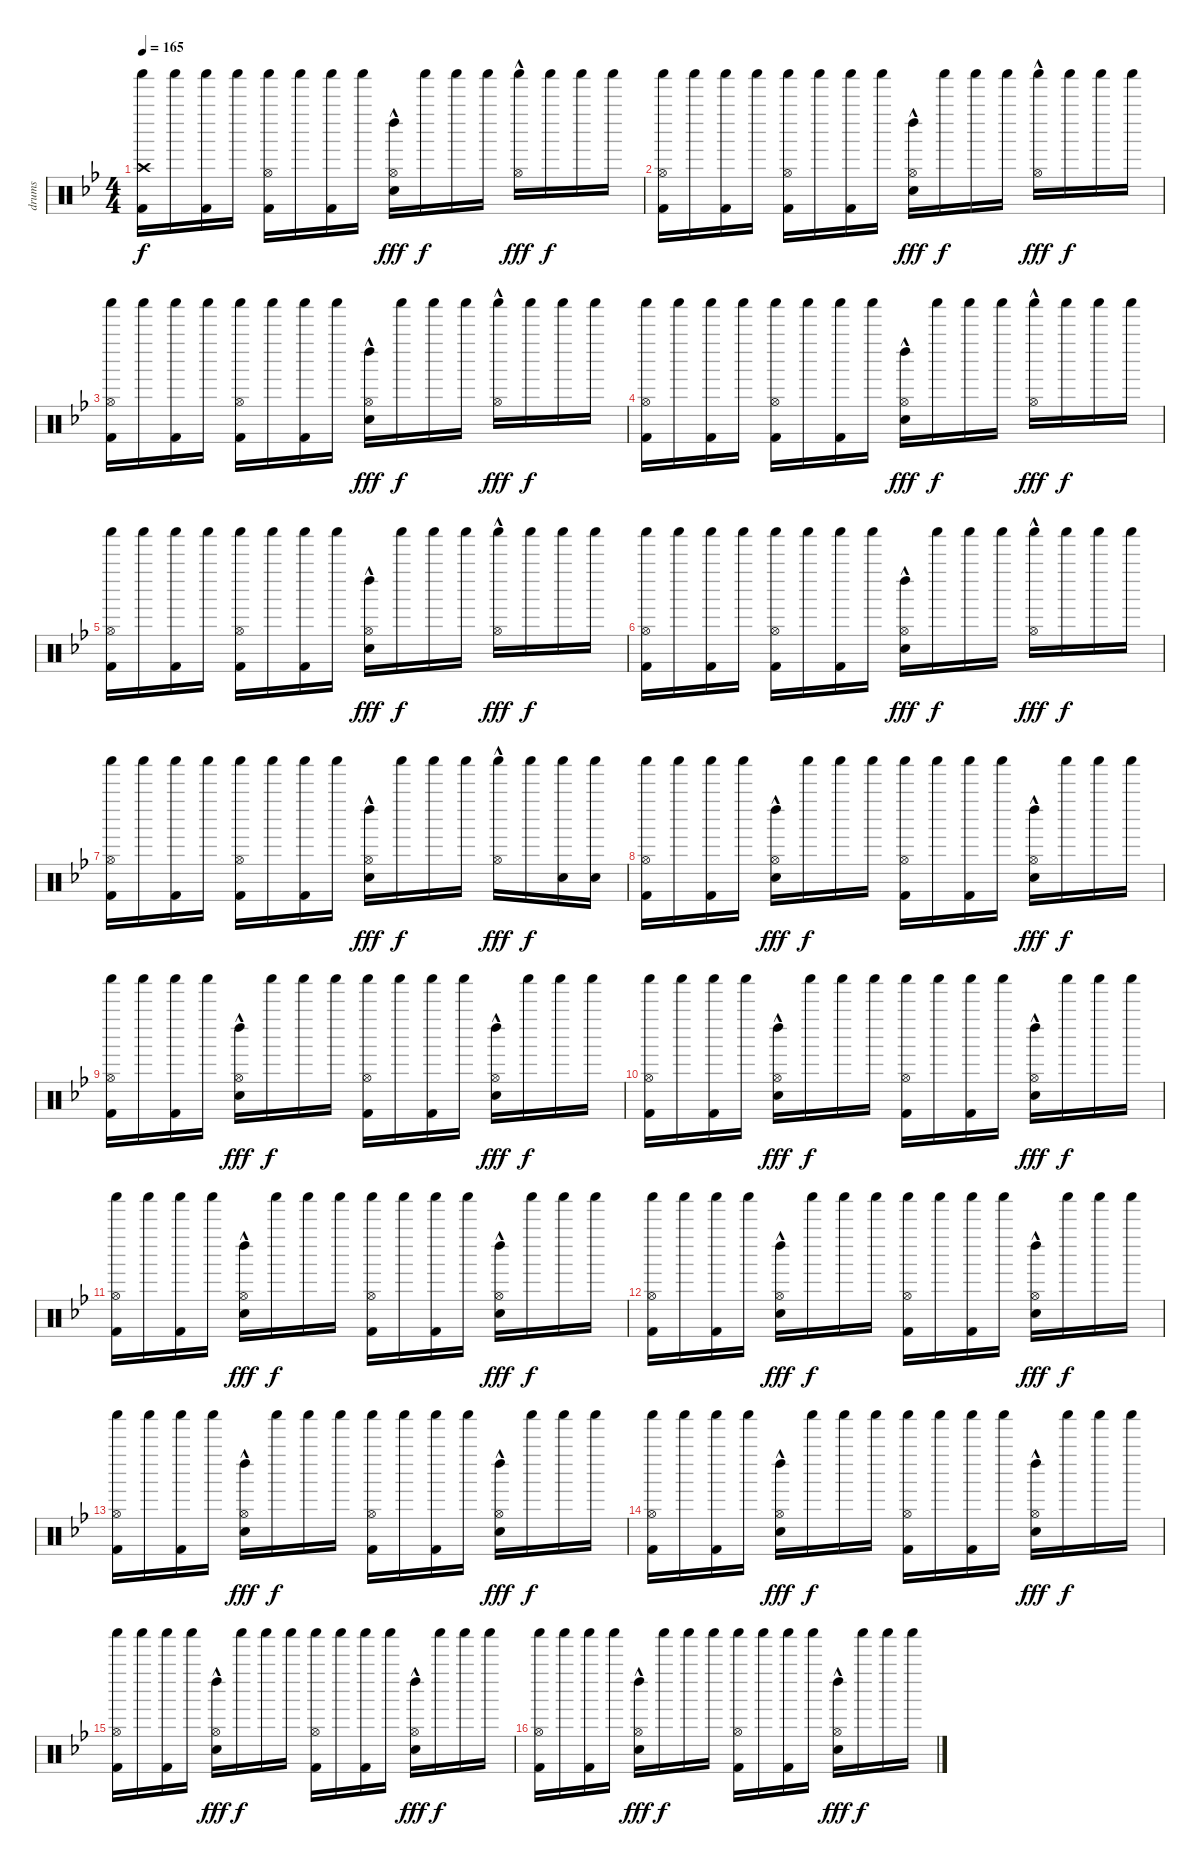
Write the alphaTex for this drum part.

\track ("drums" "drums") {instrument percussion}
\staff {score}
\articulation defaults
\ts (4 4)
\tempo 165
\clef neutral
\ks bb
("Shaker (hit)" "Crash high (hit)" "Kick (hit) 2").16{dy f} "Shaker (hit)".16 ("Shaker (hit)" "Kick (hit) 2").16 "Shaker (hit)".16 ("Shaker (hit)" "Hi-Hat (open)" "Kick (hit) 2").16 "Shaker (hit)".16 ("Shaker (hit)" "Kick (hit) 2").16 "Shaker (hit)".16 ("Left Maraca (hit)"{hac} "Hi-Hat (open)" "Snare (hit) 2").16{dy fff} "Shaker (hit)".16{dy f} "Shaker (hit)".16 "Shaker (hit)".16 ("Shaker (hit)" "Hi-Hat (open)"{hac}).16{dy fff} "Shaker (hit)".16{dy f} "Shaker (hit)".16 "Shaker (hit)".16 |
("Shaker (hit)" "Hi-Hat (open)" "Kick (hit) 2").16 "Shaker (hit)".16 ("Shaker (hit)" "Kick (hit) 2").16 "Shaker (hit)".16 ("Shaker (hit)" "Hi-Hat (open)" "Kick (hit) 2").16 "Shaker (hit)".16 ("Shaker (hit)" "Kick (hit) 2").16 "Shaker (hit)".16 ("Left Maraca (hit)"{hac} "Hi-Hat (open)" "Snare (hit) 2").16{dy fff} "Shaker (hit)".16{dy f} "Shaker (hit)".16 "Shaker (hit)".16 ("Shaker (hit)" "Hi-Hat (open)"{hac}).16{dy fff} "Shaker (hit)".16{dy f} "Shaker (hit)".16 "Shaker (hit)".16 |
("Shaker (hit)" "Hi-Hat (open)" "Kick (hit) 2").16 "Shaker (hit)".16 ("Shaker (hit)" "Kick (hit) 2").16 "Shaker (hit)".16 ("Shaker (hit)" "Hi-Hat (open)" "Kick (hit) 2").16 "Shaker (hit)".16 ("Shaker (hit)" "Kick (hit) 2").16 "Shaker (hit)".16 ("Left Maraca (hit)"{hac} "Hi-Hat (open)" "Snare (hit) 2").16{dy fff} "Shaker (hit)".16{dy f} "Shaker (hit)".16 "Shaker (hit)".16 ("Shaker (hit)" "Hi-Hat (open)"{hac}).16{dy fff} "Shaker (hit)".16{dy f} "Shaker (hit)".16 "Shaker (hit)".16 |
("Shaker (hit)" "Hi-Hat (open)" "Kick (hit) 2").16 "Shaker (hit)".16 ("Shaker (hit)" "Kick (hit) 2").16 "Shaker (hit)".16 ("Shaker (hit)" "Hi-Hat (open)" "Kick (hit) 2").16 "Shaker (hit)".16 ("Shaker (hit)" "Kick (hit) 2").16 "Shaker (hit)".16 ("Left Maraca (hit)"{hac} "Hi-Hat (open)" "Snare (hit) 2").16{dy fff} "Shaker (hit)".16{dy f} "Shaker (hit)".16 "Shaker (hit)".16 ("Shaker (hit)" "Hi-Hat (open)"{hac}).16{dy fff} "Shaker (hit)".16{dy f} "Shaker (hit)".16 "Shaker (hit)".16 |
("Shaker (hit)" "Hi-Hat (open)" "Kick (hit) 2").16 "Shaker (hit)".16 ("Shaker (hit)" "Kick (hit) 2").16 "Shaker (hit)".16 ("Shaker (hit)" "Hi-Hat (open)" "Kick (hit) 2").16 "Shaker (hit)".16 ("Shaker (hit)" "Kick (hit) 2").16 "Shaker (hit)".16 ("Left Maraca (hit)"{hac} "Hi-Hat (open)" "Snare (hit) 2").16{dy fff} "Shaker (hit)".16{dy f} "Shaker (hit)".16 "Shaker (hit)".16 ("Shaker (hit)" "Hi-Hat (open)"{hac}).16{dy fff} "Shaker (hit)".16{dy f} "Shaker (hit)".16 "Shaker (hit)".16 |
("Shaker (hit)" "Hi-Hat (open)" "Kick (hit) 2").16 "Shaker (hit)".16 ("Shaker (hit)" "Kick (hit) 2").16 "Shaker (hit)".16 ("Shaker (hit)" "Hi-Hat (open)" "Kick (hit) 2").16 "Shaker (hit)".16 ("Shaker (hit)" "Kick (hit) 2").16 "Shaker (hit)".16 ("Left Maraca (hit)"{hac} "Hi-Hat (open)" "Snare (hit) 2").16{dy fff} "Shaker (hit)".16{dy f} "Shaker (hit)".16 "Shaker (hit)".16 ("Shaker (hit)" "Hi-Hat (open)"{hac}).16{dy fff} "Shaker (hit)".16{dy f} "Shaker (hit)".16 "Shaker (hit)".16 |
("Shaker (hit)" "Hi-Hat (open)" "Kick (hit) 2").16 "Shaker (hit)".16 ("Shaker (hit)" "Kick (hit) 2").16 "Shaker (hit)".16 ("Shaker (hit)" "Hi-Hat (open)" "Kick (hit) 2").16 "Shaker (hit)".16 ("Shaker (hit)" "Kick (hit) 2").16 "Shaker (hit)".16 ("Left Maraca (hit)"{hac} "Hi-Hat (open)" "Snare (hit) 2").16{dy fff} "Shaker (hit)".16{dy f} "Shaker (hit)".16 "Shaker (hit)".16 ("Shaker (hit)" "Hi-Hat (open)"{hac}).16{dy fff} "Shaker (hit)".16{dy f} ("Shaker (hit)" "Snare (hit) 2").16 ("Shaker (hit)" "Snare (hit) 2").16 |
("Shaker (hit)" "Hi-Hat (open)" "Kick (hit) 2").16 "Shaker (hit)".16 ("Shaker (hit)" "Kick (hit) 2").16 "Shaker (hit)".16 ("Left Maraca (hit)"{hac} "Hi-Hat (open)" "Snare (hit) 2").16{dy fff} "Shaker (hit)".16{dy f} "Shaker (hit)".16 "Shaker (hit)".16 ("Shaker (hit)" "Hi-Hat (open)" "Kick (hit) 2").16 "Shaker (hit)".16 ("Shaker (hit)" "Kick (hit) 2").16 "Shaker (hit)".16 ("Left Maraca (hit)"{hac} "Hi-Hat (open)" "Snare (hit) 2").16{dy fff} "Shaker (hit)".16{dy f} "Shaker (hit)".16 "Shaker (hit)".16 |
("Shaker (hit)" "Hi-Hat (open)" "Kick (hit) 2").16 "Shaker (hit)".16 ("Shaker (hit)" "Kick (hit) 2").16 "Shaker (hit)".16 ("Left Maraca (hit)"{hac} "Hi-Hat (open)" "Snare (hit) 2").16{dy fff} "Shaker (hit)".16{dy f} "Shaker (hit)".16 "Shaker (hit)".16 ("Shaker (hit)" "Hi-Hat (open)" "Kick (hit) 2").16 "Shaker (hit)".16 ("Shaker (hit)" "Kick (hit) 2").16 "Shaker (hit)".16 ("Left Maraca (hit)"{hac} "Hi-Hat (open)" "Snare (hit) 2").16{dy fff} "Shaker (hit)".16{dy f} "Shaker (hit)".16 "Shaker (hit)".16 |
("Shaker (hit)" "Hi-Hat (open)" "Kick (hit) 2").16 "Shaker (hit)".16 ("Shaker (hit)" "Kick (hit) 2").16 "Shaker (hit)".16 ("Left Maraca (hit)"{hac} "Hi-Hat (open)" "Snare (hit) 2").16{dy fff} "Shaker (hit)".16{dy f} "Shaker (hit)".16 "Shaker (hit)".16 ("Shaker (hit)" "Hi-Hat (open)" "Kick (hit) 2").16 "Shaker (hit)".16 ("Shaker (hit)" "Kick (hit) 2").16 "Shaker (hit)".16 ("Left Maraca (hit)"{hac} "Hi-Hat (open)" "Snare (hit) 2").16{dy fff} "Shaker (hit)".16{dy f} "Shaker (hit)".16 "Shaker (hit)".16 |
("Shaker (hit)" "Hi-Hat (open)" "Kick (hit) 2").16 "Shaker (hit)".16 ("Shaker (hit)" "Kick (hit) 2").16 "Shaker (hit)".16 ("Left Maraca (hit)"{hac} "Hi-Hat (open)" "Snare (hit) 2").16{dy fff} "Shaker (hit)".16{dy f} "Shaker (hit)".16 "Shaker (hit)".16 ("Shaker (hit)" "Hi-Hat (open)" "Kick (hit) 2").16 "Shaker (hit)".16 ("Shaker (hit)" "Kick (hit) 2").16 "Shaker (hit)".16 ("Left Maraca (hit)"{hac} "Hi-Hat (open)" "Snare (hit) 2").16{dy fff} "Shaker (hit)".16{dy f} "Shaker (hit)".16 "Shaker (hit)".16 |
("Shaker (hit)" "Hi-Hat (open)" "Kick (hit) 2").16 "Shaker (hit)".16 ("Shaker (hit)" "Kick (hit) 2").16 "Shaker (hit)".16 ("Left Maraca (hit)"{hac} "Hi-Hat (open)" "Snare (hit) 2").16{dy fff} "Shaker (hit)".16{dy f} "Shaker (hit)".16 "Shaker (hit)".16 ("Shaker (hit)" "Hi-Hat (open)" "Kick (hit) 2").16 "Shaker (hit)".16 ("Shaker (hit)" "Kick (hit) 2").16 "Shaker (hit)".16 ("Left Maraca (hit)"{hac} "Hi-Hat (open)" "Snare (hit) 2").16{dy fff} "Shaker (hit)".16{dy f} "Shaker (hit)".16 "Shaker (hit)".16 |
("Shaker (hit)" "Hi-Hat (open)" "Kick (hit) 2").16 "Shaker (hit)".16 ("Shaker (hit)" "Kick (hit) 2").16 "Shaker (hit)".16 ("Left Maraca (hit)"{hac} "Hi-Hat (open)" "Snare (hit) 2").16{dy fff} "Shaker (hit)".16{dy f} "Shaker (hit)".16 "Shaker (hit)".16 ("Shaker (hit)" "Hi-Hat (open)" "Kick (hit) 2").16 "Shaker (hit)".16 ("Shaker (hit)" "Kick (hit) 2").16 "Shaker (hit)".16 ("Left Maraca (hit)"{hac} "Hi-Hat (open)" "Snare (hit) 2").16{dy fff} "Shaker (hit)".16{dy f} "Shaker (hit)".16 "Shaker (hit)".16 |
("Shaker (hit)" "Hi-Hat (open)" "Kick (hit) 2").16 "Shaker (hit)".16 ("Shaker (hit)" "Kick (hit) 2").16 "Shaker (hit)".16 ("Left Maraca (hit)"{hac} "Hi-Hat (open)" "Snare (hit) 2").16{dy fff} "Shaker (hit)".16{dy f} "Shaker (hit)".16 "Shaker (hit)".16 ("Shaker (hit)" "Hi-Hat (open)" "Kick (hit) 2").16 "Shaker (hit)".16 ("Shaker (hit)" "Kick (hit) 2").16 "Shaker (hit)".16 ("Left Maraca (hit)"{hac} "Hi-Hat (open)" "Snare (hit) 2").16{dy fff} "Shaker (hit)".16{dy f} "Shaker (hit)".16 "Shaker (hit)".16 |
("Shaker (hit)" "Hi-Hat (open)" "Kick (hit) 2").16 "Shaker (hit)".16 ("Shaker (hit)" "Kick (hit) 2").16 "Shaker (hit)".16 ("Left Maraca (hit)"{hac} "Hi-Hat (open)" "Snare (hit) 2").16{dy fff} "Shaker (hit)".16{dy f} "Shaker (hit)".16 "Shaker (hit)".16 ("Shaker (hit)" "Hi-Hat (open)" "Kick (hit) 2").16 "Shaker (hit)".16 ("Shaker (hit)" "Kick (hit) 2").16 "Shaker (hit)".16 ("Left Maraca (hit)"{hac} "Hi-Hat (open)" "Snare (hit) 2").16{dy fff} "Shaker (hit)".16{dy f} "Shaker (hit)".16 "Shaker (hit)".16 |
("Shaker (hit)" "Hi-Hat (open)" "Kick (hit) 2").16 "Shaker (hit)".16 ("Shaker (hit)" "Kick (hit) 2").16 "Shaker (hit)".16 ("Left Maraca (hit)"{hac} "Hi-Hat (open)" "Snare (hit) 2").16{dy fff} "Shaker (hit)".16{dy f} "Shaker (hit)".16 "Shaker (hit)".16 ("Shaker (hit)" "Hi-Hat (open)" "Kick (hit) 2").16 "Shaker (hit)".16 ("Shaker (hit)" "Kick (hit) 2").16 "Shaker (hit)".16 ("Left Maraca (hit)"{hac} "Hi-Hat (open)" "Snare (hit) 2").16{dy fff} "Shaker (hit)".16{dy f} "Shaker (hit)".16 "Shaker (hit)".16
